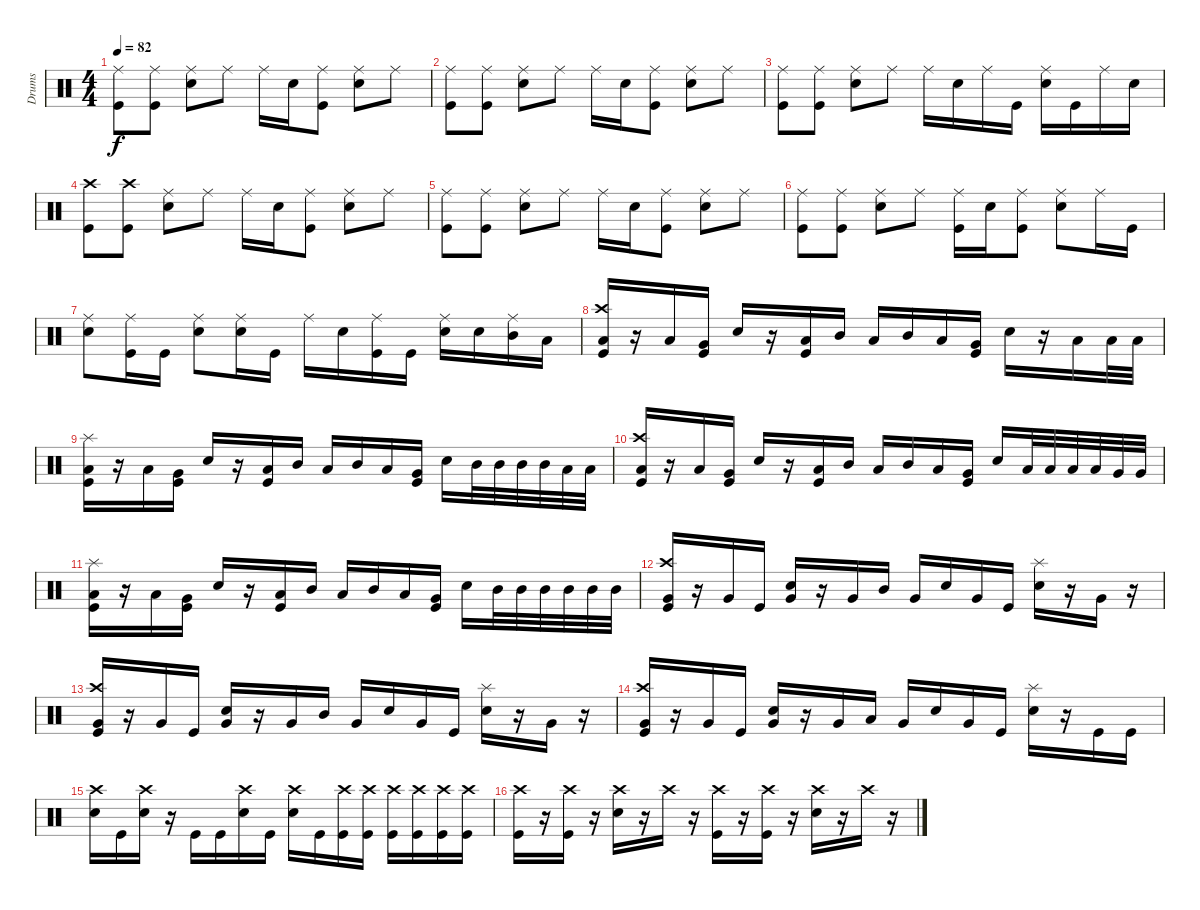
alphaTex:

\track ("Drums" "Drums") {instrument percussion}
\staff {score}
\articulation defaults
\ts (4 4)
\tempo 82
\clef neutral
\ks c
("Ride (middle)" "Kick (hit)").8{dy f} ("Ride (middle)" "Kick (hit)").8 ("Ride (middle)" "Snare (hit) 2").8 "Ride (middle)".8 "Ride (middle)".16 "Snare (hit) 2".16 ("Ride (middle)" "Kick (hit)").8 ("Ride (middle)" "Snare (hit) 2").8 "Ride (middle)".8 |
("Ride (middle)" "Kick (hit)").8 ("Ride (middle)" "Kick (hit)").8 ("Ride (middle)" "Snare (hit) 2").8 "Ride (middle)".8 "Ride (middle)".16 "Snare (hit) 2".16 ("Ride (middle)" "Kick (hit)").8 ("Ride (middle)" "Snare (hit) 2").8 "Ride (middle)".8 |
("Ride (middle)" "Kick (hit)").8 ("Ride (middle)" "Kick (hit)").8 ("Ride (middle)" "Snare (hit) 2").8 "Ride (middle)".8 "Ride (middle)".16 "Snare (hit) 2".16 "Ride (middle)".16 "Kick (hit)".16 ("Ride (middle)" "Snare (hit) 2").16 "Kick (hit)".16 "Ride (middle)".16 "Snare (hit) 2".16 |
("Crash high (hit)" "Kick (hit)").8 ("Crash high (hit)" "Kick (hit)").8 ("Ride (middle)" "Snare (hit) 2").8 "Ride (middle)".8 "Ride (middle)".16 "Snare (hit) 2".16 ("Ride (middle)" "Kick (hit)").8 ("Ride (middle)" "Snare (hit) 2").8 "Ride (middle)".8 |
("Ride (middle)" "Kick (hit)").8 ("Ride (middle)" "Kick (hit)").8 ("Ride (middle)" "Snare (hit) 2").8 "Ride (middle)".8 "Ride (middle)".16 "Snare (hit) 2".16 ("Ride (middle)" "Kick (hit)").8 ("Ride (middle)" "Snare (hit) 2").8 "Ride (middle)".8 |
("Ride (middle)" "Kick (hit)").8 ("Ride (middle)" "Kick (hit)").8 ("Ride (middle)" "Snare (hit) 2").8 "Ride (middle)".8 ("Ride (middle)" "Kick (hit)").16 "Snare (hit) 2".16 ("Ride (middle)" "Kick (hit)").8 ("Ride (middle)" "Snare (hit) 2").8 "Ride (middle)".16 "Kick (hit)".16 |
("Ride (middle)" "Snare (hit) 2").8 ("Ride (middle)" "Kick (hit)").16 "Kick (hit)".16 ("Ride (middle)" "Snare (hit) 2").8 ("Ride (middle)" "Snare (hit) 2").16 "Kick (hit)".16 "Ride (middle)".16 "Snare (hit) 2".16 ("Ride (middle)" "Kick (hit)").16 "Kick (hit)".16 ("Ride (middle)" "Snare (hit) 2").16 "Snare (hit) 2".16 ("Ride (middle)" "Mid Tom (hit)").16 "Low Tom (hit)".16 |
("Crash high (hit)" "Low Tom (hit)" "Kick (hit)").16 r.16 "Low Tom (hit)".16 ("Very Low Tom (hit)" "Kick (hit)").16 "Snare (hit) 2".16 r.16 ("Low Tom (hit)" "Kick (hit)").16 "Mid Tom (hit)".16 "Low Tom (hit)".16 "Mid Tom (hit)".16 "Low Tom (hit)".16 ("Very Low Tom (hit)" "Kick (hit)").16 "Snare (hit) 2".16 r.16 "Low Tom (hit)".16 "Low Tom (hit)".32 "Low Tom (hit)".32 |
("Splash (hit)" "Low Tom (hit)" "Kick (hit)").16 r.16 "Low Tom (hit)".16 ("Very Low Tom (hit)" "Kick (hit)").16 "Snare (hit) 2".16 r.16 ("Low Tom (hit)" "Kick (hit)").16 "Mid Tom (hit)".16 "Low Tom (hit)".16 "Mid Tom (hit)".16 "Low Tom (hit)".16 ("Very Low Tom (hit)" "Kick (hit)").16 "Snare (hit) 2".16 "Mid Tom (hit)".32 "Mid Tom (hit)".32 "Mid Tom (hit)".32 "Mid Tom (hit)".32 "Low Tom (hit)".32 "Low Tom (hit)".32 |
("Crash high (hit)" "Low Tom (hit)" "Kick (hit)").16 r.16 "Low Tom (hit)".16 ("Very Low Tom (hit)" "Kick (hit)").16 "Snare (hit) 2".16 r.16 ("Low Tom (hit)" "Kick (hit)").16 "Mid Tom (hit)".16 "Low Tom (hit)".16 "Mid Tom (hit)".16 "Low Tom (hit)".16 ("Very Low Tom (hit)" "Kick (hit)").16 "Snare (hit) 2".16 "Low Tom (hit)".32 "Low Tom (hit)".32 "Low Tom (hit)".32 "Low Tom (hit)".32 "Very Low Tom (hit)".32 "Very Low Tom (hit)".32 |
("Splash (hit)" "Low Tom (hit)" "Kick (hit)").16 r.16 "Low Tom (hit)".16 ("Very Low Tom (hit)" "Kick (hit)").16 "Snare (hit) 2".16 r.16 ("Low Tom (hit)" "Kick (hit)").16 "Mid Tom (hit)".16 "Low Tom (hit)".16 "Mid Tom (hit)".16 "Low Tom (hit)".16 ("Very Low Tom (hit)" "Kick (hit)").16 "Snare (hit) 2".16 "Mid Tom (hit)".32 "Mid Tom (hit)".32 "Mid Tom (hit)".32 "Mid Tom (hit)".32 "Mid Tom (hit)".32 "Mid Tom (hit)".32 |
("Crash high (hit)" "Very Low Tom (hit)" "Kick (hit)").16 r.16 "Very Low Tom (hit)".16 "Kick (hit)".16 ("Snare (hit) 2" "Very Low Tom (hit)").16 r.16 "Very Low Tom (hit)".16 "Mid Tom (hit)".16 "Very Low Tom (hit)".16 "Snare (hit) 2".16 "Very Low Tom (hit)".16 "Kick (hit)".16 ("Splash (hit)" "Snare (hit) 2").16 r.16 "Very Low Tom (hit)".16 r.16 |
("Crash high (hit)" "Very Low Tom (hit)" "Kick (hit)").16 r.16 "Very Low Tom (hit)".16 "Kick (hit)".16 ("Snare (hit) 2" "Very Low Tom (hit)").16 r.16 "Very Low Tom (hit)".16 "Mid Tom (hit)".16 "Very Low Tom (hit)".16 "Snare (hit) 2".16 "Very Low Tom (hit)".16 "Kick (hit)".16 ("Splash (hit)" "Snare (hit) 2").16 r.16 "Very Low Tom (hit)".16 r.16 |
("Crash high (hit)" "Very Low Tom (hit)" "Kick (hit)").16 r.16 "Very Low Tom (hit)".16 "Kick (hit)".16 ("Snare (hit) 2" "Very Low Tom (hit)").16 r.16 "Very Low Tom (hit)".16 "Low Tom (hit)".16 "Very Low Tom (hit)".16 "Snare (hit) 2".16 "Very Low Tom (hit)".16 "Kick (hit)".16 ("Splash (hit)" "Snare (hit) 2").16 r.16 "Kick (hit)".16 "Kick (hit)".16 |
("Crash high (hit)" "Snare (hit) 2").16 "Kick (hit)".16 ("Crash high (hit)" "Snare (hit) 2").16 r.16 "Kick (hit)".16 "Kick (hit)".16 ("Crash high (hit)" "Snare (hit) 2").16 "Kick (hit)".16 ("Crash high (hit)" "Snare (hit) 2").16 "Kick (hit)".16 ("Crash high (hit)" "Kick (hit)").16 ("Crash high (hit)" "Kick (hit)").16 ("Crash high (hit)" "Kick (hit)").16 ("Crash high (hit)" "Kick (hit)").16 ("Crash high (hit)" "Kick (hit)").16 ("Crash high (hit)" "Kick (hit)").16 |
("Crash high (hit)" "Kick (hit)").16 r.16 ("Crash high (hit)" "Kick (hit)").16 r.16 ("Crash high (hit)" "Snare (hit) 2").16 r.16 "Crash high (hit)".16 r.16 ("Crash high (hit)" "Kick (hit)").16 r.16 ("Crash high (hit)" "Kick (hit)").16 r.16 ("Crash high (hit)" "Snare (hit) 2").16 r.16 "Crash high (hit)".16 r.16
